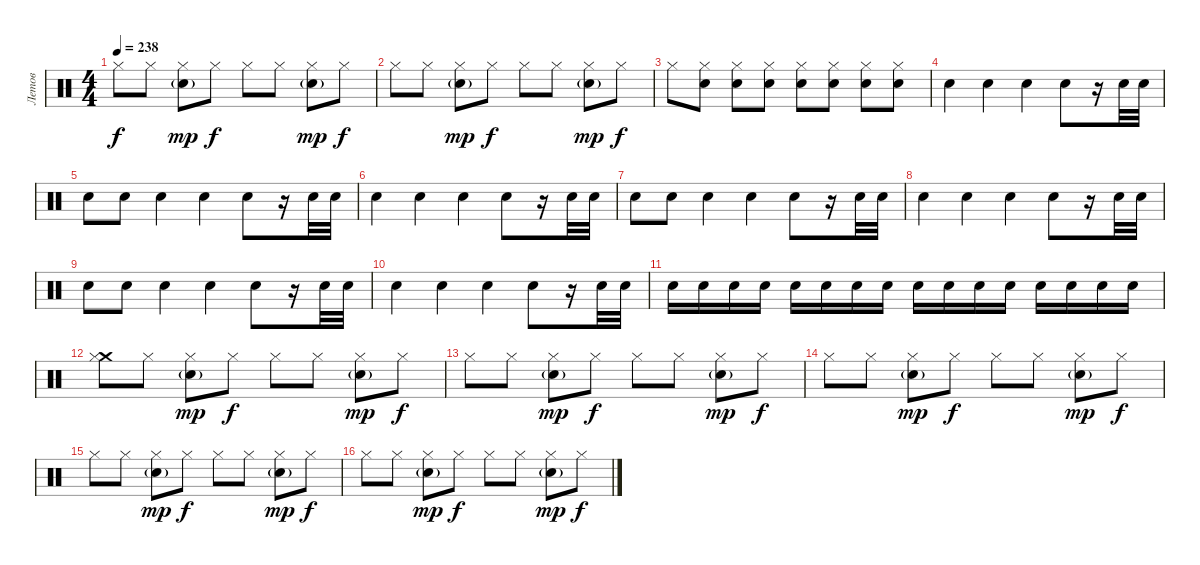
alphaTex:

\track ("Летов" "Летов") {instrument percussion}
\staff {score}
\articulation defaults
\ts (4 4)
\tempo 238
\clef neutral
\ks c "Hi-Hat (closed)".8{dy f} "Hi-Hat (closed)".8
("Hi-Hat (closed)" "Snare (hit) 2"{g}).8{dy mp} "Hi-Hat (closed)".8{dy f} "Hi-Hat (closed)".8 "Hi-Hat (closed)".8 ("Hi-Hat (closed)" "Snare (hit) 2"{g}).8{dy mp} "Hi-Hat (closed)".8{dy f} |
"Hi-Hat (closed)".8 "Hi-Hat (closed)".8 ("Hi-Hat (closed)" "Snare (hit) 2"{g}).8{dy mp} "Hi-Hat (closed)".8{dy f} "Hi-Hat (closed)".8 "Hi-Hat (closed)".8 ("Hi-Hat (closed)" "Snare (hit) 2"{g}).8{dy mp} "Hi-Hat (closed)".8{dy f} |
"Hi-Hat (closed)".8 ("Hi-Hat (closed)" "Snare (hit) 2").8 ("Hi-Hat (closed)" "Snare (hit) 2").8 ("Hi-Hat (closed)" "Snare (hit) 2").8 ("Hi-Hat (closed)" "Snare (hit) 2").8 ("Hi-Hat (closed)" "Snare (hit) 2").8 ("Hi-Hat (closed)" "Snare (hit) 2").8 ("Hi-Hat (closed)" "Snare (hit) 2").8 |
"Snare (hit) 2".4 "Snare (hit) 2".4 "Snare (hit) 2".4 "Snare (hit) 2".8 r.16 "Snare (hit) 2".32 "Snare (hit) 2".32 |
"Snare (hit) 2".8 "Snare (hit) 2".8 "Snare (hit) 2".4 "Snare (hit) 2".4 "Snare (hit) 2".8 r.16 "Snare (hit) 2".32 "Snare (hit) 2".32 |
"Snare (hit) 2".4 "Snare (hit) 2".4 "Snare (hit) 2".4 "Snare (hit) 2".8 r.16 "Snare (hit) 2".32 "Snare (hit) 2".32 |
"Snare (hit) 2".8 "Snare (hit) 2".8 "Snare (hit) 2".4 "Snare (hit) 2".4 "Snare (hit) 2".8 r.16 "Snare (hit) 2".32 "Snare (hit) 2".32 |
"Snare (hit) 2".4 "Snare (hit) 2".4 "Snare (hit) 2".4 "Snare (hit) 2".8 r.16 "Snare (hit) 2".32 "Snare (hit) 2".32 |
"Snare (hit) 2".8 "Snare (hit) 2".8 "Snare (hit) 2".4 "Snare (hit) 2".4 "Snare (hit) 2".8 r.16 "Snare (hit) 2".32 "Snare (hit) 2".32 |
"Snare (hit) 2".4 "Snare (hit) 2".4 "Snare (hit) 2".4 "Snare (hit) 2".8 r.16 "Snare (hit) 2".32 "Snare (hit) 2".32 |
"Snare (hit) 2".16 "Snare (hit) 2".16 "Snare (hit) 2".16 "Snare (hit) 2".16 "Snare (hit) 2".16 "Snare (hit) 2".16 "Snare (hit) 2".16 "Snare (hit) 2".16 "Snare (hit) 2".16 "Snare (hit) 2".16 "Snare (hit) 2".16 "Snare (hit) 2".16 "Snare (hit) 2".16 "Snare (hit) 2".16 "Snare (hit) 2".16 "Snare (hit) 2".16 |
("Crash medium (hit)" "Hi-Hat (closed)").8 "Hi-Hat (closed)".8 ("Hi-Hat (closed)" "Snare (hit) 2"{g}).8{dy mp} "Hi-Hat (closed)".8{dy f} "Hi-Hat (closed)".8 "Hi-Hat (closed)".8 ("Hi-Hat (closed)" "Snare (hit) 2"{g}).8{dy mp} "Hi-Hat (closed)".8{dy f} |
"Hi-Hat (closed)".8 "Hi-Hat (closed)".8 ("Hi-Hat (closed)" "Snare (hit) 2"{g}).8{dy mp} "Hi-Hat (closed)".8{dy f} "Hi-Hat (closed)".8 "Hi-Hat (closed)".8 ("Hi-Hat (closed)" "Snare (hit) 2"{g}).8{dy mp} "Hi-Hat (closed)".8{dy f} |
"Hi-Hat (closed)".8 "Hi-Hat (closed)".8 ("Hi-Hat (closed)" "Snare (hit) 2"{g}).8{dy mp} "Hi-Hat (closed)".8{dy f} "Hi-Hat (closed)".8 "Hi-Hat (closed)".8 ("Hi-Hat (closed)" "Snare (hit) 2"{g}).8{dy mp} "Hi-Hat (closed)".8{dy f} |
"Hi-Hat (closed)".8 "Hi-Hat (closed)".8 ("Hi-Hat (closed)" "Snare (hit) 2"{g}).8{dy mp} "Hi-Hat (closed)".8{dy f} "Hi-Hat (closed)".8 "Hi-Hat (closed)".8 ("Hi-Hat (closed)" "Snare (hit) 2"{g}).8{dy mp} "Hi-Hat (closed)".8{dy f} |
"Hi-Hat (closed)".8 "Hi-Hat (closed)".8 ("Hi-Hat (closed)" "Snare (hit) 2"{g}).8{dy mp} "Hi-Hat (closed)".8{dy f} "Hi-Hat (closed)".8 "Hi-Hat (closed)".8 ("Hi-Hat (closed)" "Snare (hit) 2"{g}).8{dy mp} "Hi-Hat (closed)".8{dy f}
